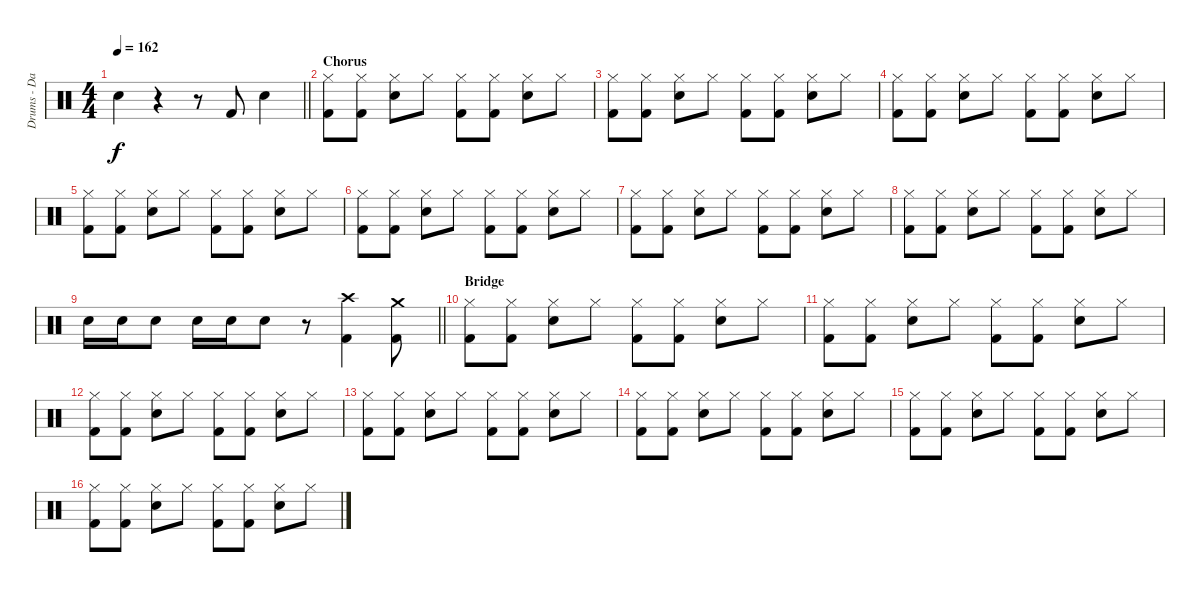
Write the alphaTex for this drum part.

\track ("Drums - David Holland" "Drums - Da") {instrument percussion}
\staff {score}
\articulation defaults
\ts (4 4)
\tempo 162
\clef neutral
\barLineRight lightlight
\ks c "Snare (hit) 2".4{dy f}
r.4 r.8 "Kick (hit) 2".8 "Snare (hit) 2".4 |
\section ("" "Chorus")
("Hi-Hat (closed)" "Kick (hit) 2").8 ("Hi-Hat (closed)" "Kick (hit) 2").8 ("Hi-Hat (closed)" "Snare (hit) 2").8 "Hi-Hat (closed)".8 ("Hi-Hat (closed)" "Kick (hit) 2").8 ("Hi-Hat (closed)" "Kick (hit) 2").8 ("Hi-Hat (closed)" "Snare (hit) 2").8 "Hi-Hat (closed)".8 |
("Hi-Hat (closed)" "Kick (hit) 2").8 ("Hi-Hat (closed)" "Kick (hit) 2").8 ("Hi-Hat (closed)" "Snare (hit) 2").8 "Hi-Hat (closed)".8 ("Hi-Hat (closed)" "Kick (hit) 2").8 ("Hi-Hat (closed)" "Kick (hit) 2").8 ("Hi-Hat (closed)" "Snare (hit) 2").8 "Hi-Hat (closed)".8 |
("Hi-Hat (closed)" "Kick (hit) 2").8 ("Hi-Hat (closed)" "Kick (hit) 2").8 ("Hi-Hat (closed)" "Snare (hit) 2").8 "Hi-Hat (closed)".8 ("Hi-Hat (closed)" "Kick (hit) 2").8 ("Hi-Hat (closed)" "Kick (hit) 2").8 ("Hi-Hat (closed)" "Snare (hit) 2").8 "Hi-Hat (closed)".8 |
("Hi-Hat (closed)" "Kick (hit) 2").8 ("Hi-Hat (closed)" "Kick (hit) 2").8 ("Hi-Hat (closed)" "Snare (hit) 2").8 "Hi-Hat (closed)".8 ("Hi-Hat (closed)" "Kick (hit) 2").8 ("Hi-Hat (closed)" "Kick (hit) 2").8 ("Hi-Hat (closed)" "Snare (hit) 2").8 "Hi-Hat (closed)".8 |
("Hi-Hat (closed)" "Kick (hit) 2").8 ("Hi-Hat (closed)" "Kick (hit) 2").8 ("Hi-Hat (closed)" "Snare (hit) 2").8 "Hi-Hat (closed)".8 ("Hi-Hat (closed)" "Kick (hit) 2").8 ("Hi-Hat (closed)" "Kick (hit) 2").8 ("Hi-Hat (closed)" "Snare (hit) 2").8 "Hi-Hat (closed)".8 |
("Hi-Hat (closed)" "Kick (hit) 2").8 ("Hi-Hat (closed)" "Kick (hit) 2").8 ("Hi-Hat (closed)" "Snare (hit) 2").8 "Hi-Hat (closed)".8 ("Hi-Hat (closed)" "Kick (hit) 2").8 ("Hi-Hat (closed)" "Kick (hit) 2").8 ("Hi-Hat (closed)" "Snare (hit) 2").8 "Hi-Hat (closed)".8 |
("Hi-Hat (closed)" "Kick (hit) 2").8 ("Hi-Hat (closed)" "Kick (hit) 2").8 ("Hi-Hat (closed)" "Snare (hit) 2").8 "Hi-Hat (closed)".8 ("Hi-Hat (closed)" "Kick (hit) 2").8 ("Hi-Hat (closed)" "Kick (hit) 2").8 ("Hi-Hat (closed)" "Snare (hit) 2").8 "Hi-Hat (closed)".8 |
\barLineRight lightlight "Snare (hit) 2".16 "Snare (hit) 2".16 "Snare (hit) 2".8 "Snare (hit) 2".16 "Snare (hit) 2".16 "Snare (hit) 2".8
r.8 ("Crash high (hit)" "Kick (hit) 2").4 ("Crash medium (hit)" "Kick (hit) 2").8 |
\section ("" "Bridge")
("Hi-Hat (closed)" "Kick (hit) 2").8 ("Hi-Hat (closed)" "Kick (hit) 2").8 ("Hi-Hat (closed)" "Snare (hit) 2").8 "Hi-Hat (closed)".8 ("Hi-Hat (closed)" "Kick (hit) 2").8 ("Hi-Hat (closed)" "Kick (hit) 2").8 ("Hi-Hat (closed)" "Snare (hit) 2").8 "Hi-Hat (closed)".8 |
("Hi-Hat (closed)" "Kick (hit) 2").8 ("Hi-Hat (closed)" "Kick (hit) 2").8 ("Hi-Hat (closed)" "Snare (hit) 2").8 "Hi-Hat (closed)".8 ("Hi-Hat (closed)" "Kick (hit) 2").8 ("Hi-Hat (closed)" "Kick (hit) 2").8 ("Hi-Hat (closed)" "Snare (hit) 2").8 "Hi-Hat (closed)".8 |
("Hi-Hat (closed)" "Kick (hit) 2").8 ("Hi-Hat (closed)" "Kick (hit) 2").8 ("Hi-Hat (closed)" "Snare (hit) 2").8 "Hi-Hat (closed)".8 ("Hi-Hat (closed)" "Kick (hit) 2").8 ("Hi-Hat (closed)" "Kick (hit) 2").8 ("Hi-Hat (closed)" "Snare (hit) 2").8 "Hi-Hat (closed)".8 |
("Hi-Hat (closed)" "Kick (hit) 2").8 ("Hi-Hat (closed)" "Kick (hit) 2").8 ("Hi-Hat (closed)" "Snare (hit) 2").8 "Hi-Hat (closed)".8 ("Hi-Hat (closed)" "Kick (hit) 2").8 ("Hi-Hat (closed)" "Kick (hit) 2").8 ("Hi-Hat (closed)" "Snare (hit) 2").8 "Hi-Hat (closed)".8 |
("Hi-Hat (closed)" "Kick (hit) 2").8 ("Hi-Hat (closed)" "Kick (hit) 2").8 ("Hi-Hat (closed)" "Snare (hit) 2").8 "Hi-Hat (closed)".8 ("Hi-Hat (closed)" "Kick (hit) 2").8 ("Hi-Hat (closed)" "Kick (hit) 2").8 ("Hi-Hat (closed)" "Snare (hit) 2").8 "Hi-Hat (closed)".8 |
("Hi-Hat (closed)" "Kick (hit) 2").8 ("Hi-Hat (closed)" "Kick (hit) 2").8 ("Hi-Hat (closed)" "Snare (hit) 2").8 "Hi-Hat (closed)".8 ("Hi-Hat (closed)" "Kick (hit) 2").8 ("Hi-Hat (closed)" "Kick (hit) 2").8 ("Hi-Hat (closed)" "Snare (hit) 2").8 "Hi-Hat (closed)".8 |
("Hi-Hat (closed)" "Kick (hit) 2").8 ("Hi-Hat (closed)" "Kick (hit) 2").8 ("Hi-Hat (closed)" "Snare (hit) 2").8 "Hi-Hat (closed)".8 ("Hi-Hat (closed)" "Kick (hit) 2").8 ("Hi-Hat (closed)" "Kick (hit) 2").8 ("Hi-Hat (closed)" "Snare (hit) 2").8 "Hi-Hat (closed)".8
